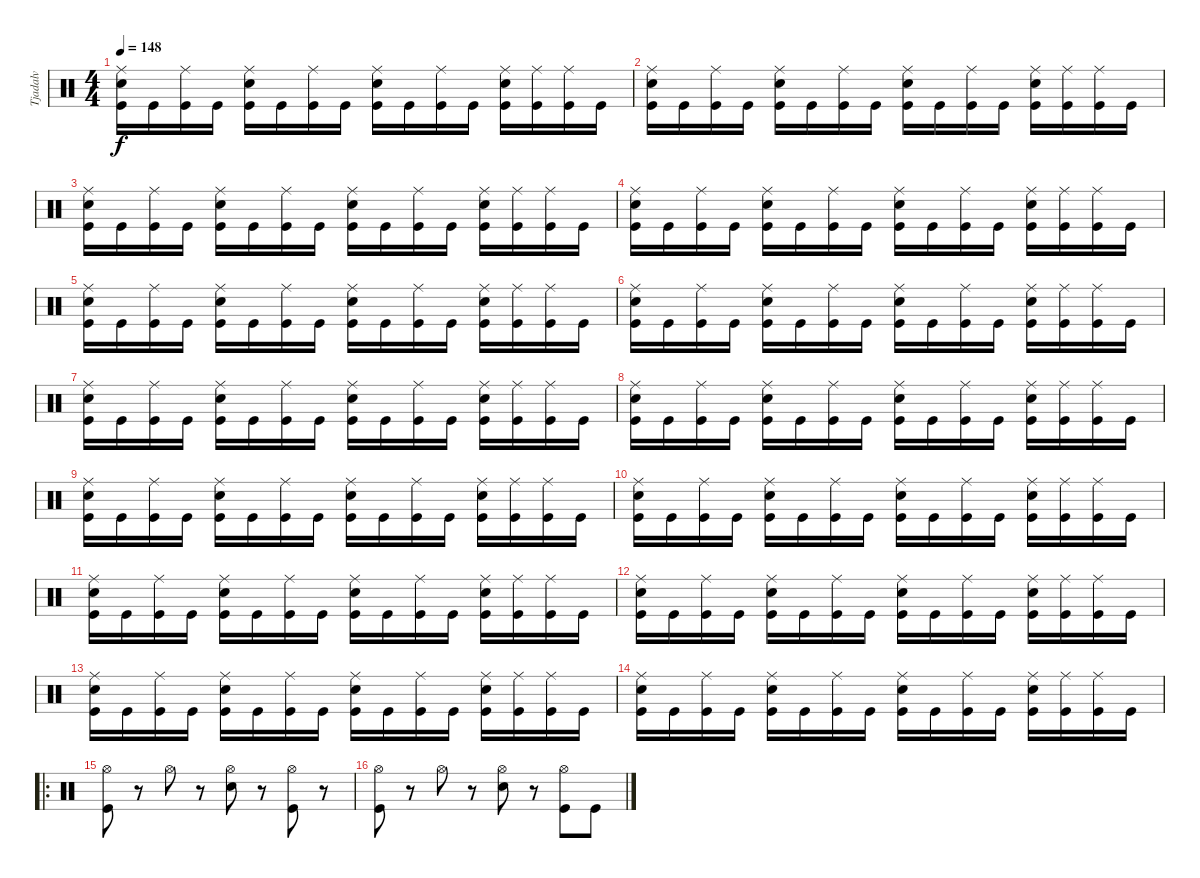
\track ("Tjadalv    ( Drum )" "Tjadalv   ") {instrument percussion}
\staff {score}
\articulation defaults
\ts (4 4)
\tempo 148
\clef neutral
\ks c
("Ride (middle)" "Electric Snare (hit)" "Kick (hit)").16{dy f} "Kick (hit)".16 ("Ride (middle)" "Kick (hit)").16 "Kick (hit)".16 ("Ride (middle)" "Electric Snare (hit)" "Kick (hit)").16 "Kick (hit)".16 ("Ride (middle)" "Kick (hit)").16 "Kick (hit)".16 ("Ride (middle)" "Electric Snare (hit)" "Kick (hit)").16 "Kick (hit)".16 ("Ride (middle)" "Kick (hit)").16 "Kick (hit)".16 ("Ride (middle)" "Electric Snare (hit)" "Kick (hit)").16 ("Ride (middle)" "Kick (hit)").16 ("Ride (middle)" "Kick (hit)").16 "Kick (hit)".16 |
("Ride (middle)" "Electric Snare (hit)" "Kick (hit)").16 "Kick (hit)".16 ("Ride (middle)" "Kick (hit)").16 "Kick (hit)".16 ("Ride (middle)" "Electric Snare (hit)" "Kick (hit)").16 "Kick (hit)".16 ("Ride (middle)" "Kick (hit)").16 "Kick (hit)".16 ("Ride (middle)" "Electric Snare (hit)" "Kick (hit)").16 "Kick (hit)".16 ("Ride (middle)" "Kick (hit)").16 "Kick (hit)".16 ("Ride (middle)" "Electric Snare (hit)" "Kick (hit)").16 ("Ride (middle)" "Kick (hit)").16 ("Ride (middle)" "Kick (hit)").16 "Kick (hit)".16 |
("Ride (middle)" "Electric Snare (hit)" "Kick (hit)").16 "Kick (hit)".16 ("Ride (middle)" "Kick (hit)").16 "Kick (hit)".16 ("Ride (middle)" "Electric Snare (hit)" "Kick (hit)").16 "Kick (hit)".16 ("Ride (middle)" "Kick (hit)").16 "Kick (hit)".16 ("Ride (middle)" "Electric Snare (hit)" "Kick (hit)").16 "Kick (hit)".16 ("Ride (middle)" "Kick (hit)").16 "Kick (hit)".16 ("Ride (middle)" "Electric Snare (hit)" "Kick (hit)").16 ("Ride (middle)" "Kick (hit)").16 ("Ride (middle)" "Kick (hit)").16 "Kick (hit)".16 |
("Ride (middle)" "Electric Snare (hit)" "Kick (hit)").16 "Kick (hit)".16 ("Ride (middle)" "Kick (hit)").16 "Kick (hit)".16 ("Ride (middle)" "Electric Snare (hit)" "Kick (hit)").16 "Kick (hit)".16 ("Ride (middle)" "Kick (hit)").16 "Kick (hit)".16 ("Ride (middle)" "Electric Snare (hit)" "Kick (hit)").16 "Kick (hit)".16 ("Ride (middle)" "Kick (hit)").16 "Kick (hit)".16 ("Ride (middle)" "Electric Snare (hit)" "Kick (hit)").16 ("Ride (middle)" "Kick (hit)").16 ("Ride (middle)" "Kick (hit)").16 "Kick (hit)".16 |
("Ride (middle)" "Electric Snare (hit)" "Kick (hit)").16 "Kick (hit)".16 ("Ride (middle)" "Kick (hit)").16 "Kick (hit)".16 ("Ride (middle)" "Electric Snare (hit)" "Kick (hit)").16 "Kick (hit)".16 ("Ride (middle)" "Kick (hit)").16 "Kick (hit)".16 ("Ride (middle)" "Electric Snare (hit)" "Kick (hit)").16 "Kick (hit)".16 ("Ride (middle)" "Kick (hit)").16 "Kick (hit)".16 ("Ride (middle)" "Electric Snare (hit)" "Kick (hit)").16 ("Ride (middle)" "Kick (hit)").16 ("Ride (middle)" "Kick (hit)").16 "Kick (hit)".16 |
("Ride (middle)" "Electric Snare (hit)" "Kick (hit)").16 "Kick (hit)".16 ("Ride (middle)" "Kick (hit)").16 "Kick (hit)".16 ("Ride (middle)" "Electric Snare (hit)" "Kick (hit)").16 "Kick (hit)".16 ("Ride (middle)" "Kick (hit)").16 "Kick (hit)".16 ("Ride (middle)" "Electric Snare (hit)" "Kick (hit)").16 "Kick (hit)".16 ("Ride (middle)" "Kick (hit)").16 "Kick (hit)".16 ("Ride (middle)" "Electric Snare (hit)" "Kick (hit)").16 ("Ride (middle)" "Kick (hit)").16 ("Ride (middle)" "Kick (hit)").16 "Kick (hit)".16 |
("Ride (middle)" "Electric Snare (hit)" "Kick (hit)").16 "Kick (hit)".16 ("Ride (middle)" "Kick (hit)").16 "Kick (hit)".16 ("Ride (middle)" "Electric Snare (hit)" "Kick (hit)").16 "Kick (hit)".16 ("Ride (middle)" "Kick (hit)").16 "Kick (hit)".16 ("Ride (middle)" "Electric Snare (hit)" "Kick (hit)").16 "Kick (hit)".16 ("Ride (middle)" "Kick (hit)").16 "Kick (hit)".16 ("Ride (middle)" "Electric Snare (hit)" "Kick (hit)").16 ("Ride (middle)" "Kick (hit)").16 ("Ride (middle)" "Kick (hit)").16 "Kick (hit)".16 |
("Ride (middle)" "Electric Snare (hit)" "Kick (hit)").16 "Kick (hit)".16 ("Ride (middle)" "Kick (hit)").16 "Kick (hit)".16 ("Ride (middle)" "Electric Snare (hit)" "Kick (hit)").16 "Kick (hit)".16 ("Ride (middle)" "Kick (hit)").16 "Kick (hit)".16 ("Ride (middle)" "Electric Snare (hit)" "Kick (hit)").16 "Kick (hit)".16 ("Ride (middle)" "Kick (hit)").16 "Kick (hit)".16 ("Ride (middle)" "Electric Snare (hit)" "Kick (hit)").16 ("Ride (middle)" "Kick (hit)").16 ("Ride (middle)" "Kick (hit)").16 "Kick (hit)".16 |
("Ride (middle)" "Electric Snare (hit)" "Kick (hit)").16 "Kick (hit)".16 ("Ride (middle)" "Kick (hit)").16 "Kick (hit)".16 ("Ride (middle)" "Electric Snare (hit)" "Kick (hit)").16 "Kick (hit)".16 ("Ride (middle)" "Kick (hit)").16 "Kick (hit)".16 ("Ride (middle)" "Electric Snare (hit)" "Kick (hit)").16 "Kick (hit)".16 ("Ride (middle)" "Kick (hit)").16 "Kick (hit)".16 ("Ride (middle)" "Electric Snare (hit)" "Kick (hit)").16 ("Ride (middle)" "Kick (hit)").16 ("Ride (middle)" "Kick (hit)").16 "Kick (hit)".16 |
("Ride (middle)" "Electric Snare (hit)" "Kick (hit)").16 "Kick (hit)".16 ("Ride (middle)" "Kick (hit)").16 "Kick (hit)".16 ("Ride (middle)" "Electric Snare (hit)" "Kick (hit)").16 "Kick (hit)".16 ("Ride (middle)" "Kick (hit)").16 "Kick (hit)".16 ("Ride (middle)" "Electric Snare (hit)" "Kick (hit)").16 "Kick (hit)".16 ("Ride (middle)" "Kick (hit)").16 "Kick (hit)".16 ("Ride (middle)" "Electric Snare (hit)" "Kick (hit)").16 ("Ride (middle)" "Kick (hit)").16 ("Ride (middle)" "Kick (hit)").16 "Kick (hit)".16 |
("Ride (middle)" "Electric Snare (hit)" "Kick (hit)").16 "Kick (hit)".16 ("Ride (middle)" "Kick (hit)").16 "Kick (hit)".16 ("Ride (middle)" "Electric Snare (hit)" "Kick (hit)").16 "Kick (hit)".16 ("Ride (middle)" "Kick (hit)").16 "Kick (hit)".16 ("Ride (middle)" "Electric Snare (hit)" "Kick (hit)").16 "Kick (hit)".16 ("Ride (middle)" "Kick (hit)").16 "Kick (hit)".16 ("Ride (middle)" "Electric Snare (hit)" "Kick (hit)").16 ("Ride (middle)" "Kick (hit)").16 ("Ride (middle)" "Kick (hit)").16 "Kick (hit)".16 |
("Ride (middle)" "Electric Snare (hit)" "Kick (hit)").16 "Kick (hit)".16 ("Ride (middle)" "Kick (hit)").16 "Kick (hit)".16 ("Ride (middle)" "Electric Snare (hit)" "Kick (hit)").16 "Kick (hit)".16 ("Ride (middle)" "Kick (hit)").16 "Kick (hit)".16 ("Ride (middle)" "Electric Snare (hit)" "Kick (hit)").16 "Kick (hit)".16 ("Ride (middle)" "Kick (hit)").16 "Kick (hit)".16 ("Ride (middle)" "Electric Snare (hit)" "Kick (hit)").16 ("Ride (middle)" "Kick (hit)").16 ("Ride (middle)" "Kick (hit)").16 "Kick (hit)".16 |
("Ride (middle)" "Electric Snare (hit)" "Kick (hit)").16 "Kick (hit)".16 ("Ride (middle)" "Kick (hit)").16 "Kick (hit)".16 ("Ride (middle)" "Electric Snare (hit)" "Kick (hit)").16 "Kick (hit)".16 ("Ride (middle)" "Kick (hit)").16 "Kick (hit)".16 ("Ride (middle)" "Electric Snare (hit)" "Kick (hit)").16 "Kick (hit)".16 ("Ride (middle)" "Kick (hit)").16 "Kick (hit)".16 ("Ride (middle)" "Electric Snare (hit)" "Kick (hit)").16 ("Ride (middle)" "Kick (hit)").16 ("Ride (middle)" "Kick (hit)").16 "Kick (hit)".16 |
("Ride (middle)" "Electric Snare (hit)" "Kick (hit)").16 "Kick (hit)".16 ("Ride (middle)" "Kick (hit)").16 "Kick (hit)".16 ("Ride (middle)" "Electric Snare (hit)" "Kick (hit)").16 "Kick (hit)".16 ("Ride (middle)" "Kick (hit)").16 "Kick (hit)".16 ("Ride (middle)" "Electric Snare (hit)" "Kick (hit)").16 "Kick (hit)".16 ("Ride (middle)" "Kick (hit)").16 "Kick (hit)".16 ("Ride (middle)" "Electric Snare (hit)" "Kick (hit)").16 ("Ride (middle)" "Kick (hit)").16 ("Ride (middle)" "Kick (hit)").16 "Kick (hit)".16 |
\ro
("Hi-Hat (open)" "Kick (hit)").8 r.8 "Hi-Hat (open)".8 r.8 ("Hi-Hat (open)" "Electric Snare (hit)").8 r.8 ("Hi-Hat (open)" "Kick (hit)").8 r.8 |
("Hi-Hat (open)" "Kick (hit)").8 r.8 "Hi-Hat (open)".8 r.8 ("Hi-Hat (open)" "Electric Snare (hit)").8 r.8 ("Hi-Hat (open)" "Kick (hit)").8 "Kick (hit)".8
